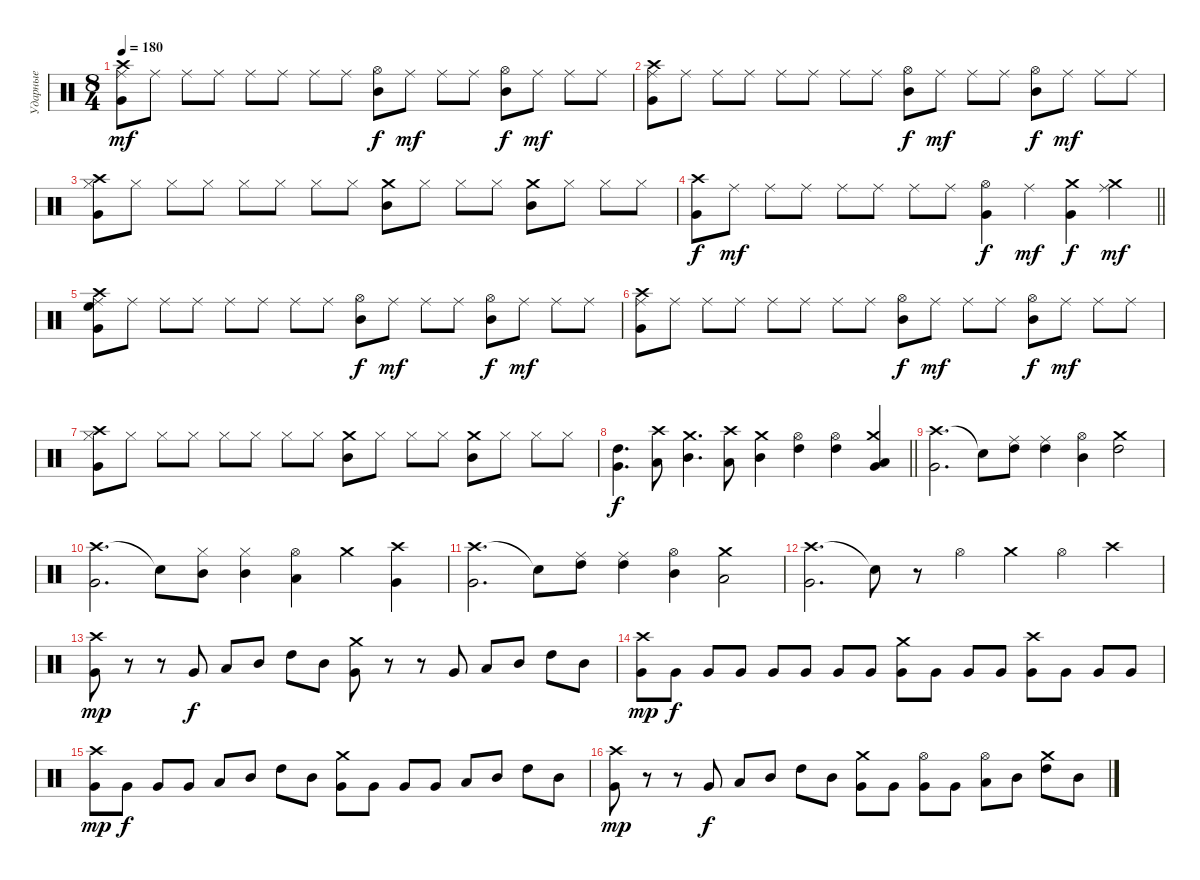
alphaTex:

\track ("Ударные" "Ударные") {instrument percussion}
\staff {score}
\articulation defaults
\ts (8 4)
\section ("" "")
\tempo 180
\clef neutral
\ks c
("Ride (middle)" "Crash high (hit)" "Very Low Tom (hit)").8{dy mf} "Ride (middle)".8 "Ride (middle)".8 "Ride (middle)".8 "Ride (middle)".8 "Ride (middle)".8 "Ride (middle)".8 "Ride (middle)".8 ("Hi-Hat (open)" "Mid Tom (hit)").8{dy f} "Ride (middle)".8{dy mf} "Ride (middle)".8 "Ride (middle)".8 ("Hi-Hat (open)" "Mid Tom (hit)").8{dy f} "Ride (middle)".8{dy mf} "Ride (middle)".8 "Ride (middle)".8 |
("Ride (middle)" "Crash high (hit)" "Very Low Tom (hit)").8 "Ride (middle)".8 "Ride (middle)".8 "Ride (middle)".8 "Ride (middle)".8 "Ride (middle)".8 "Ride (middle)".8 "Ride (middle)".8 ("Hi-Hat (open)" "Mid Tom (hit)").8{dy f} "Ride (middle)".8{dy mf} "Ride (middle)".8 "Ride (middle)".8 ("Hi-Hat (open)" "Mid Tom (hit)").8{dy f} "Ride (middle)".8{dy mf} "Ride (middle)".8 "Ride (middle)".8 |
("Hi-Hat (closed)" "Crash high (hit)" "Very Low Tom (hit)").8 "Hi-Hat (closed)".8 "Hi-Hat (closed)".8 "Hi-Hat (closed)".8 "Hi-Hat (closed)".8 "Hi-Hat (closed)".8 "Hi-Hat (closed)".8 "Hi-Hat (closed)".8 ("Crash medium (hit)" "Mid Tom (hit)").8 "Hi-Hat (closed)".8 "Hi-Hat (closed)".8 "Hi-Hat (closed)".8 ("Crash medium (hit)" "Mid Tom (hit)").8 "Hi-Hat (closed)".8 "Hi-Hat (closed)".8 "Hi-Hat (closed)".8 |
\barLineRight lightlight
("Crash high (hit)" "Very Low Tom (hit)").8{dy f} "Ride (middle)".8{dy mf} "Ride (middle)".8 "Ride (middle)".8 "Ride (middle)".8 "Ride (middle)".8 "Ride (middle)".8 "Ride (middle)".8 ("Hi-Hat (open)" "Very Low Tom (hit)").4{dy f} "Ride (middle)".4{dy mf} ("Crash medium (hit)" "Very Low Tom (hit)").4{dy f} ("Crash medium (hit)" "Ride (middle)").4{dy mf} |
("High Floor Tom (hit)" "Ride (middle)" "Crash high (hit)" "Very Low Tom (hit)").8 "Ride (middle)".8 "Ride (middle)".8 "Ride (middle)".8 "Ride (middle)".8 "Ride (middle)".8 "Ride (middle)".8 "Ride (middle)".8 ("Hi-Hat (open)" "Mid Tom (hit)").8{dy f} "Ride (middle)".8{dy mf} "Ride (middle)".8 "Ride (middle)".8 ("Hi-Hat (open)" "Mid Tom (hit)").8{dy f} "Ride (middle)".8{dy mf} "Ride (middle)".8 "Ride (middle)".8 |
("Ride (middle)" "Crash high (hit)" "Very Low Tom (hit)").8 "Ride (middle)".8 "Ride (middle)".8 "Ride (middle)".8 "Ride (middle)".8 "Ride (middle)".8 "Ride (middle)".8 "Ride (middle)".8 ("Hi-Hat (open)" "Mid Tom (hit)").8{dy f} "Ride (middle)".8{dy mf} "Ride (middle)".8 "Ride (middle)".8 ("Hi-Hat (open)" "Mid Tom (hit)").8{dy f} "Ride (middle)".8{dy mf} "Ride (middle)".8 "Ride (middle)".8 |
("Hi-Hat (closed)" "Crash high (hit)" "Very Low Tom (hit)").8 "Hi-Hat (closed)".8 "Hi-Hat (closed)".8 "Hi-Hat (closed)".8 "Hi-Hat (closed)".8 "Hi-Hat (closed)".8 "Hi-Hat (closed)".8 "Hi-Hat (closed)".8 ("Crash medium (hit)" "Mid Tom (hit)").8 "Hi-Hat (closed)".8 "Hi-Hat (closed)".8 "Hi-Hat (closed)".8 ("Crash medium (hit)" "Mid Tom (hit)").8 "Hi-Hat (closed)".8 "Hi-Hat (closed)".8 "Hi-Hat (closed)".8 |
\barLineRight lightlight
("High Tom (hit)" "Very Low Tom (hit)").4{d dy f} ("Crash high (hit)" "Low Tom (hit)").8 ("Crash medium (hit)" "Mid Tom (hit)").4{d} ("Crash high (hit)" "Low Tom (hit)").8 ("Crash medium (hit)" "Mid Tom (hit)").4 ("Hi-Hat (open)" "High Tom (hit)").4 ("Hi-Hat (open)" "High Tom (hit)").4 ("Crash medium (hit)" "Low Tom (hit)" "Very Low Tom (hit)").4 |
\section ("" "")
("Crash high (hit)" "Very Low Tom (hit)").2{d} "Snare (hit)"{t}.8 ("Ride (middle)" "High Tom (hit)").8 ("Ride (middle)" "High Tom (hit)").4 ("Hi-Hat (open)" "Mid Tom (hit)").4 ("Crash medium (hit)" "High Tom (hit)").2 |
("Crash high (hit)" "Very Low Tom (hit)").2{d} "Snare (hit)"{t}.8 ("Hi-Hat (closed)" "Mid Tom (hit)").8 ("Hi-Hat (closed)" "Mid Tom (hit)").4 ("Hi-Hat (open)" "Low Tom (hit)").4 "Crash medium (hit)".4 ("Crash high (hit)" "Very Low Tom (hit)").4 |
("Crash high (hit)" "Very Low Tom (hit)").2{d} "Snare (hit)"{t}.8 ("Ride (middle)" "High Tom (hit)").8 ("Ride (middle)" "High Tom (hit)").4 ("Hi-Hat (open)" "Mid Tom (hit)").4 ("Crash medium (hit)" "Low Tom (hit)").2 |
("Crash high (hit)" "Very Low Tom (hit)").2{d} "Snare (hit)"{t}.8 r.8 "Hi-Hat (open)".4 "Crash medium (hit)".4 "Hi-Hat (open)".4 "Crash high (hit)".4 |
("Crash high (hit)" "Very Low Tom (hit)").8{dy mp} r.8 r.8 "Very Low Tom (hit)".8{dy f} "Low Tom (hit)".8 "Mid Tom (hit)".8 "High Tom (hit)".8 "Mid Tom (hit)".8 ("Crash medium (hit)" "Very Low Tom (hit)").8 r.8 r.8 "Very Low Tom (hit)".8 "Low Tom (hit)".8 "Mid Tom (hit)".8 "High Tom (hit)".8 "Mid Tom (hit)".8 |
("Crash high (hit)" "Very Low Tom (hit)").8{dy mp} "Very Low Tom (hit)".8{dy f} "Very Low Tom (hit)".8 "Very Low Tom (hit)".8 "Very Low Tom (hit)".8 "Very Low Tom (hit)".8 "Very Low Tom (hit)".8 "Very Low Tom (hit)".8 ("Crash medium (hit)" "Very Low Tom (hit)").8 "Very Low Tom (hit)".8 "Very Low Tom (hit)".8 "Very Low Tom (hit)".8 ("Crash high (hit)" "Very Low Tom (hit)").8 "Very Low Tom (hit)".8 "Very Low Tom (hit)".8 "Very Low Tom (hit)".8 |
("Crash high (hit)" "Very Low Tom (hit)").8{dy mp} "Very Low Tom (hit)".8{dy f} "Very Low Tom (hit)".8 "Very Low Tom (hit)".8 "Low Tom (hit)".8 "Mid Tom (hit)".8 "High Tom (hit)".8 "Mid Tom (hit)".8 ("Crash medium (hit)" "Very Low Tom (hit)").8 "Very Low Tom (hit)".8 "Very Low Tom (hit)".8 "Very Low Tom (hit)".8 "Low Tom (hit)".8 "Mid Tom (hit)".8 "High Tom (hit)".8 "Mid Tom (hit)".8 |
("Crash high (hit)" "Very Low Tom (hit)").8{dy mp} r.8 r.8 "Very Low Tom (hit)".8{dy f} "Low Tom (hit)".8 "Mid Tom (hit)".8 "High Tom (hit)".8 "Mid Tom (hit)".8 ("Crash medium (hit)" "Very Low Tom (hit)").8 "Very Low Tom (hit)".8 ("Hi-Hat (open)" "Very Low Tom (hit)").8 "Very Low Tom (hit)".8 ("Hi-Hat (open)" "Low Tom (hit)").8 "Mid Tom (hit)".8 ("Crash medium (hit)" "High Tom (hit)").8 "Mid Tom (hit)".8
